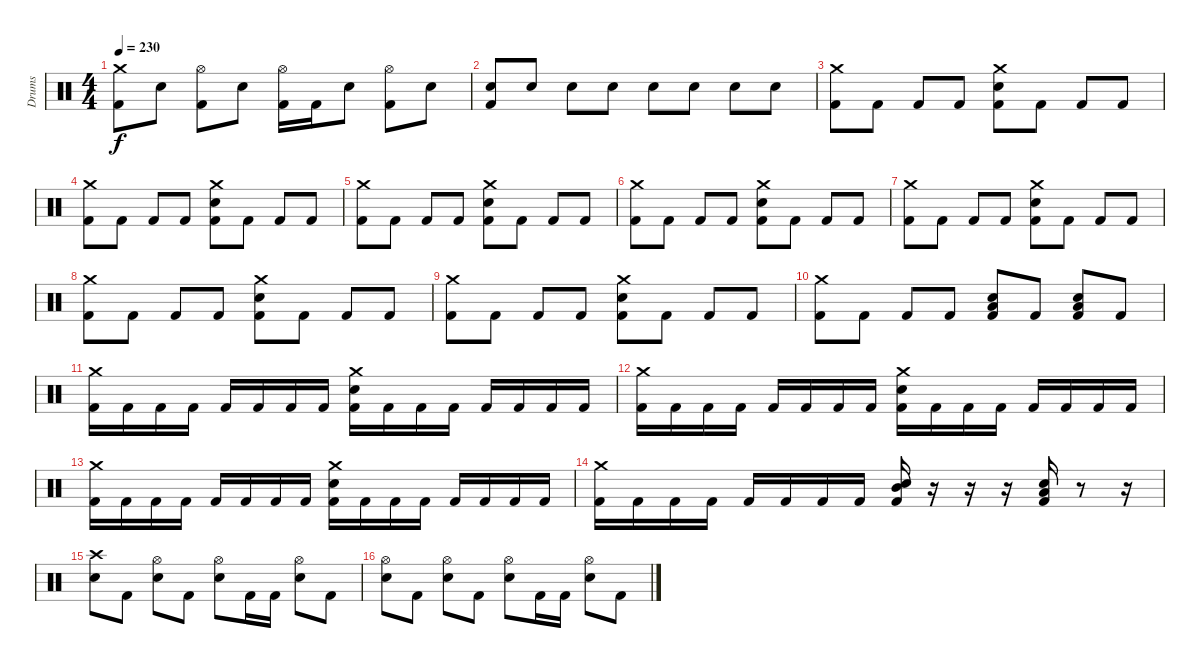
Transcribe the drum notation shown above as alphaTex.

\track ("Drums" "Drums") {instrument percussion}
\staff {score}
\articulation defaults
\ts (4 4)
\tempo 230
\clef neutral
\ks c
("Crash medium (hit)" "Kick (hit) 2").8{dy f} "Electric Snare (hit)".8 ("Hi-Hat (open)" "Kick (hit) 2").8 "Electric Snare (hit)".8 ("Hi-Hat (open)" "Kick (hit) 2").16 "Kick (hit) 2".16 "Electric Snare (hit)".8 ("Hi-Hat (open)" "Kick (hit) 2").8 "Electric Snare (hit)".8 |
("Electric Snare (hit)" "Kick (hit) 2").8 "Electric Snare (hit)".8 "Electric Snare (hit)".8 "Electric Snare (hit)".8 "Electric Snare (hit)".8 "Electric Snare (hit)".8 "Electric Snare (hit)".8 "Electric Snare (hit)".8 |
("Crash medium (hit)" "Kick (hit) 2").8 "Kick (hit) 2".8 "Kick (hit) 2".8 "Kick (hit) 2".8 ("Crash medium (hit)" "Electric Snare (hit)" "Kick (hit) 2").8 "Kick (hit) 2".8 "Kick (hit) 2".8 "Kick (hit) 2".8 |
("Crash medium (hit)" "Kick (hit) 2").8 "Kick (hit) 2".8 "Kick (hit) 2".8 "Kick (hit) 2".8 ("Crash medium (hit)" "Electric Snare (hit)" "Kick (hit) 2").8 "Kick (hit) 2".8 "Kick (hit) 2".8 "Kick (hit) 2".8 |
("Crash medium (hit)" "Kick (hit) 2").8 "Kick (hit) 2".8 "Kick (hit) 2".8 "Kick (hit) 2".8 ("Crash medium (hit)" "Electric Snare (hit)" "Kick (hit) 2").8 "Kick (hit) 2".8 "Kick (hit) 2".8 "Kick (hit) 2".8 |
("Crash medium (hit)" "Kick (hit) 2").8 "Kick (hit) 2".8 "Kick (hit) 2".8 "Kick (hit) 2".8 ("Crash medium (hit)" "Electric Snare (hit)" "Kick (hit) 2").8 "Kick (hit) 2".8 "Kick (hit) 2".8 "Kick (hit) 2".8 |
("Crash medium (hit)" "Kick (hit) 2").8 "Kick (hit) 2".8 "Kick (hit) 2".8 "Kick (hit) 2".8 ("Crash medium (hit)" "Electric Snare (hit)" "Kick (hit) 2").8 "Kick (hit) 2".8 "Kick (hit) 2".8 "Kick (hit) 2".8 |
("Crash medium (hit)" "Kick (hit) 2").8 "Kick (hit) 2".8 "Kick (hit) 2".8 "Kick (hit) 2".8 ("Crash medium (hit)" "Electric Snare (hit)" "Kick (hit) 2").8 "Kick (hit) 2".8 "Kick (hit) 2".8 "Kick (hit) 2".8 |
("Crash medium (hit)" "Kick (hit) 2").8 "Kick (hit) 2".8 "Kick (hit) 2".8 "Kick (hit) 2".8 ("Crash medium (hit)" "Electric Snare (hit)" "Kick (hit) 2").8 "Kick (hit) 2".8 "Kick (hit) 2".8 "Kick (hit) 2".8 |
("Crash medium (hit)" "Kick (hit) 2").8 "Kick (hit) 2".8 "Kick (hit) 2".8 "Kick (hit) 2".8 ("Low Tom (hit)" "Electric Snare (hit)" "Kick (hit) 2").8 "Kick (hit) 2".8 ("Low Tom (hit)" "Electric Snare (hit)" "Kick (hit) 2").8 "Kick (hit) 2".8 |
("Crash medium (hit)" "Kick (hit) 2").16 "Kick (hit) 2".16 "Kick (hit) 2".16 "Kick (hit) 2".16 "Kick (hit) 2".16 "Kick (hit) 2".16 "Kick (hit) 2".16 "Kick (hit) 2".16 ("Crash medium (hit)" "Electric Snare (hit)" "Kick (hit) 2").16 "Kick (hit) 2".16 "Kick (hit) 2".16 "Kick (hit) 2".16 "Kick (hit) 2".16 "Kick (hit) 2".16 "Kick (hit) 2".16 "Kick (hit) 2".16 |
("Crash medium (hit)" "Kick (hit) 2").16 "Kick (hit) 2".16 "Kick (hit) 2".16 "Kick (hit) 2".16 "Kick (hit) 2".16 "Kick (hit) 2".16 "Kick (hit) 2".16 "Kick (hit) 2".16 ("Crash medium (hit)" "Electric Snare (hit)" "Kick (hit) 2").16 "Kick (hit) 2".16 "Kick (hit) 2".16 "Kick (hit) 2".16 "Kick (hit) 2".16 "Kick (hit) 2".16 "Kick (hit) 2".16 "Kick (hit) 2".16 |
("Crash medium (hit)" "Kick (hit) 2").16 "Kick (hit) 2".16 "Kick (hit) 2".16 "Kick (hit) 2".16 "Kick (hit) 2".16 "Kick (hit) 2".16 "Kick (hit) 2".16 "Kick (hit) 2".16 ("Crash medium (hit)" "Electric Snare (hit)" "Kick (hit) 2").16 "Kick (hit) 2".16 "Kick (hit) 2".16 "Kick (hit) 2".16 "Kick (hit) 2".16 "Kick (hit) 2".16 "Kick (hit) 2".16 "Kick (hit) 2".16 |
("Crash medium (hit)" "Kick (hit) 2").16 "Kick (hit) 2".16 "Kick (hit) 2".16 "Kick (hit) 2".16 "Kick (hit) 2".16 "Kick (hit) 2".16 "Kick (hit) 2".16 "Kick (hit) 2".16 ("Mid Tom (hit)" "Electric Snare (hit)" "Kick (hit) 2").16 r.16 r.16 r.16 ("Low Tom (hit)" "Electric Snare (hit)" "Kick (hit) 2").16 r.8 r.16 |
("Crash high (hit)" "Electric Snare (hit)").8 "Kick (hit) 2".8 ("Hi-Hat (open)" "Electric Snare (hit)").8 "Kick (hit) 2".8 ("Hi-Hat (open)" "Electric Snare (hit)").8 "Kick (hit) 2".16 "Kick (hit) 2".16 ("Hi-Hat (open)" "Electric Snare (hit)").8 "Kick (hit) 2".8 |
("Hi-Hat (open)" "Electric Snare (hit)").8 "Kick (hit) 2".8 ("Hi-Hat (open)" "Electric Snare (hit)").8 "Kick (hit) 2".8 ("Hi-Hat (open)" "Electric Snare (hit)").8 "Kick (hit) 2".16 "Kick (hit) 2".16 ("Hi-Hat (open)" "Electric Snare (hit)").8 "Kick (hit) 2".8
